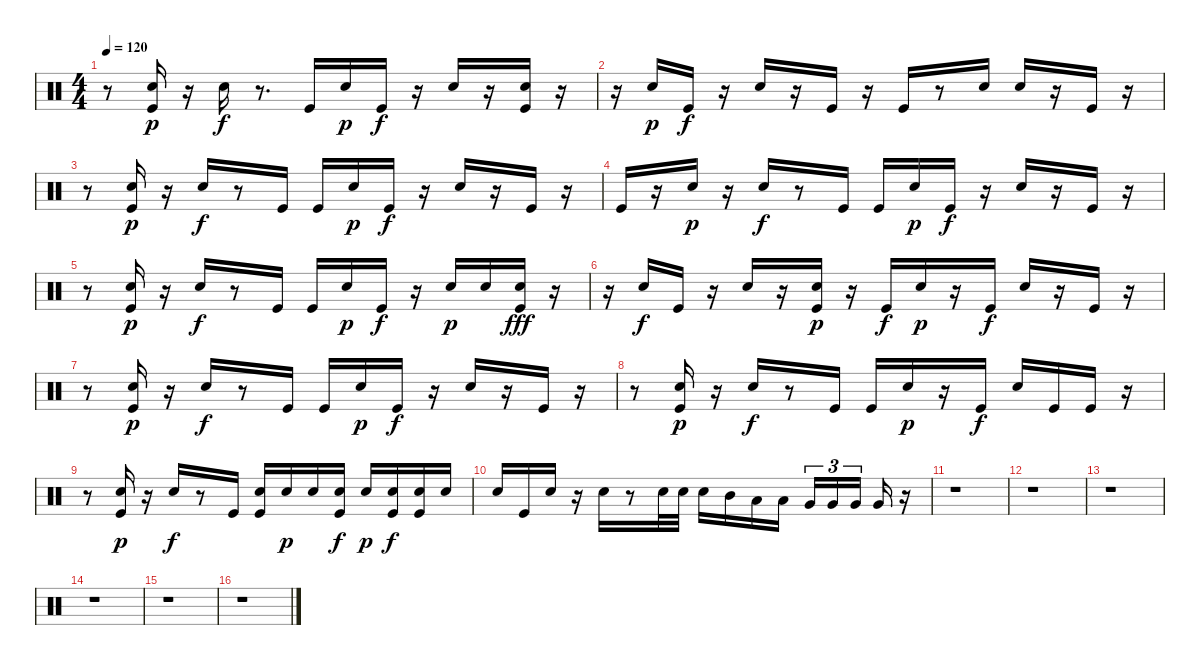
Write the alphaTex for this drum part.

\track "" {instrument percussion}
\staff {score}
\articulation defaults
\ts (4 4)
\tempo 120
\clef neutral
\ks c
r.8{dy f} ("Electric Snare (hit)" "Kick (hit)").16{dy p} r.16 "Electric Snare (hit)".16{dy f} r.8{d} "Kick (hit)".16 "Electric Snare (hit)".16{dy p} "Kick (hit)".16{dy f} r.16 "Electric Snare (hit)".16 r.16 ("Kick (hit)" "Electric Snare (hit)").16 r.16 |
r.16 "Electric Snare (hit)".16{dy p} "Kick (hit)".16{dy f} r.16 "Electric Snare (hit)".16 r.16 "Kick (hit)".16 r.16 "Kick (hit)".16 r.8 "Electric Snare (hit)".16 "Electric Snare (hit)".16 r.16 "Kick (hit)".16 r.16 |
r.8 ("Electric Snare (hit)" "Kick (hit)").16{dy p} r.16 "Electric Snare (hit)".16{dy f} r.8 "Kick (hit)".16 "Kick (hit)".16 "Electric Snare (hit)".16{dy p} "Kick (hit)".16{dy f} r.16 "Electric Snare (hit)".16 r.16 "Kick (hit)".16 r.16 |
"Kick (hit)".16 r.16 "Electric Snare (hit)".16{dy p} r.16 "Electric Snare (hit)".16{dy f} r.8 "Kick (hit)".16 "Kick (hit)".16 "Electric Snare (hit)".16{dy p} "Kick (hit)".16{dy f} r.16 "Electric Snare (hit)".16 r.16 "Kick (hit)".16 r.16 |
r.8 ("Electric Snare (hit)" "Kick (hit)").16{dy p} r.16 "Electric Snare (hit)".16{dy f} r.8 "Kick (hit)".16 "Kick (hit)".16 "Electric Snare (hit)".16{dy p} "Kick (hit)".16{dy f} r.16 "Electric Snare (hit)".16{dy p} "Electric Snare (hit)".16 ("Kick (hit)" "Electric Snare (hit)").16{dy fff} r.16 |
r.16 "Electric Snare (hit)".16{dy f} "Kick (hit)".16 r.16 "Electric Snare (hit)".16 r.16 ("Kick (hit)" "Electric Snare (hit)").16{dy p} r.16 "Kick (hit)".16{dy f} "Electric Snare (hit)".16{dy p} r.16 "Kick (hit)".16{dy f} "Electric Snare (hit)".16 r.16 "Kick (hit)".16 r.16 |
r.8 ("Electric Snare (hit)" "Kick (hit)").16{dy p} r.16 "Electric Snare (hit)".16{dy f} r.8 "Kick (hit)".16 "Kick (hit)".16 "Electric Snare (hit)".16{dy p} "Kick (hit)".16{dy f} r.16 "Electric Snare (hit)".16 r.16 "Kick (hit)".16 r.16 |
r.8 ("Electric Snare (hit)" "Kick (hit)").16{dy p} r.16 "Electric Snare (hit)".16{dy f} r.8 "Kick (hit)".16 "Kick (hit)".16 "Electric Snare (hit)".16{dy p} r.16 "Kick (hit)".16{dy f} "Electric Snare (hit)".16 "Kick (hit)".16 "Kick (hit)".16 r.16 |
r.8 ("Electric Snare (hit)" "Kick (hit)").16{dy p} r.16 "Electric Snare (hit)".16{dy f} r.8 "Kick (hit)".16 ("Electric Snare (hit)" "Kick (hit)").16 "Electric Snare (hit)".16{dy p} "Electric Snare (hit)".16 ("Electric Snare (hit)" "Kick (hit)").16{dy f} "Electric Snare (hit)".16{dy p} ("Electric Snare (hit)" "Kick (hit)").16{dy f} ("Electric Snare (hit)" "Kick (hit)").16 "Electric Snare (hit)".16 |
"Electric Snare (hit)".16 "Kick (hit)".16 "Electric Snare (hit)".16 r.16 "Electric Snare (hit)".16 r.8 "Electric Snare (hit)".32 "Electric Snare (hit)".32 "Electric Snare (hit)".16 "Mid Tom (hit)".16 "Low Tom (hit)".16 "Low Tom (hit)".16 "Very Low Tom (hit)".16{tu (3 2)} "Very Low Tom (hit)".16{tu (3 2)} "Very Low Tom (hit)".16{tu (3 2)} "Very Low Tom (hit)".16 r.16 |
r.1 |
r.1 |
r.1 |
r.1 |
r.1 |
r.1
